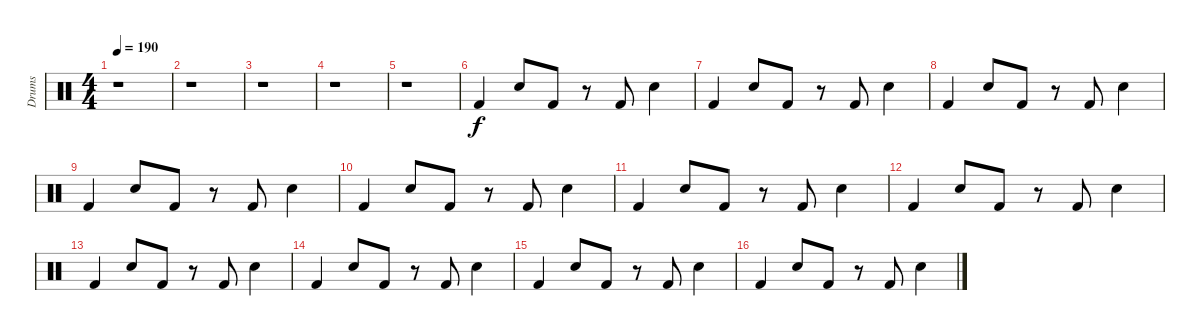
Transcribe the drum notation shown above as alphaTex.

\track ("Drums" "Drums") {instrument percussion}
\staff {score}
\articulation defaults
\ts (4 4)
\tempo 190
\clef neutral
\ks c
r.1{dy f} |
r.1 |
r.1 |
r.1 |
r.1 |
"Kick (hit) 2".4 "Electric Snare (hit)".8 "Kick (hit) 2".8 r.8 "Kick (hit) 2".8 "Electric Snare (hit)".4 |
"Kick (hit) 2".4 "Electric Snare (hit)".8 "Kick (hit) 2".8 r.8 "Kick (hit) 2".8 "Electric Snare (hit)".4 |
"Kick (hit) 2".4 "Electric Snare (hit)".8 "Kick (hit) 2".8 r.8 "Kick (hit) 2".8 "Electric Snare (hit)".4 |
"Kick (hit) 2".4 "Electric Snare (hit)".8 "Kick (hit) 2".8 r.8 "Kick (hit) 2".8 "Electric Snare (hit)".4 |
"Kick (hit) 2".4 "Electric Snare (hit)".8 "Kick (hit) 2".8 r.8 "Kick (hit) 2".8 "Electric Snare (hit)".4 |
"Kick (hit) 2".4 "Electric Snare (hit)".8 "Kick (hit) 2".8 r.8 "Kick (hit) 2".8 "Electric Snare (hit)".4 |
"Kick (hit) 2".4 "Electric Snare (hit)".8 "Kick (hit) 2".8 r.8 "Kick (hit) 2".8 "Electric Snare (hit)".4 |
"Kick (hit) 2".4 "Electric Snare (hit)".8 "Kick (hit) 2".8 r.8 "Kick (hit) 2".8 "Electric Snare (hit)".4 |
"Kick (hit) 2".4 "Electric Snare (hit)".8 "Kick (hit) 2".8 r.8 "Kick (hit) 2".8 "Electric Snare (hit)".4 |
"Kick (hit) 2".4 "Electric Snare (hit)".8 "Kick (hit) 2".8 r.8 "Kick (hit) 2".8 "Electric Snare (hit)".4 |
"Kick (hit) 2".4 "Electric Snare (hit)".8 "Kick (hit) 2".8 r.8 "Kick (hit) 2".8 "Electric Snare (hit)".4
